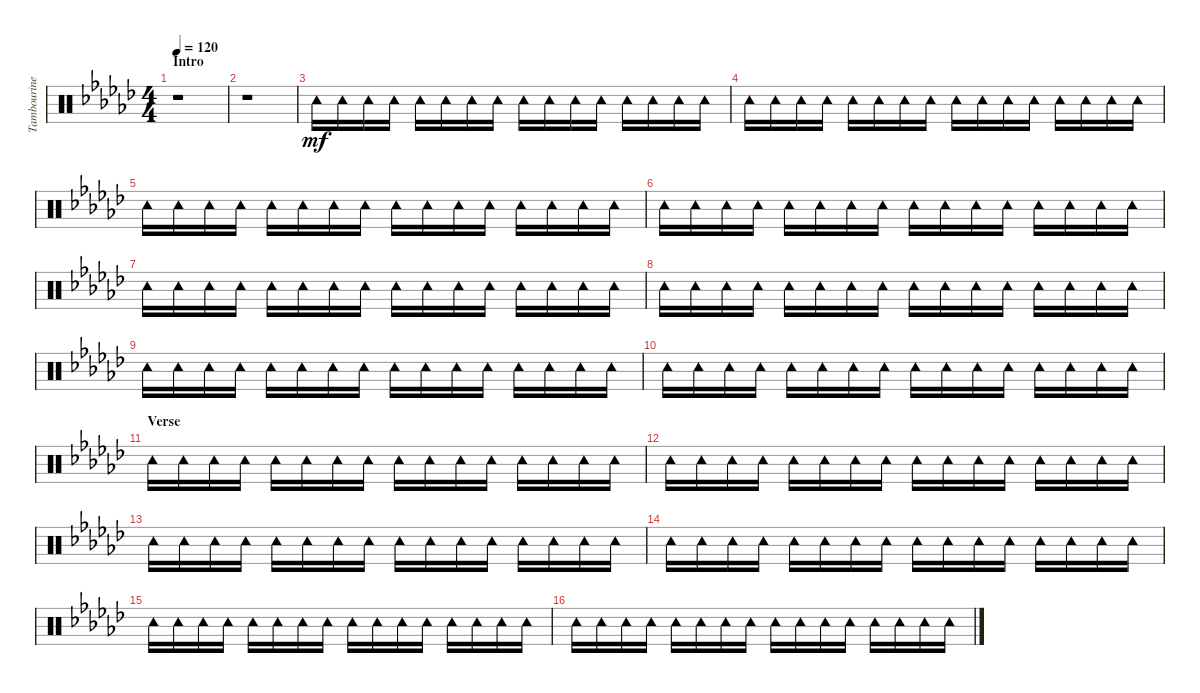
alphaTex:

\track ("Tambourine" "Tambourine") {instrument percussion}
\staff {score}
\articulation defaults
\ts (4 4)
\section ("" "Intro")
\tempo 120
\clef neutral
\ks ebminor
r.1{dy mf} |
r.1 |
"Tambourine (hit)".16 "Tambourine (hit)".16 "Tambourine (hit)".16 "Tambourine (hit)".16 "Tambourine (hit)".16 "Tambourine (hit)".16 "Tambourine (hit)".16 "Tambourine (hit)".16 "Tambourine (hit)".16 "Tambourine (hit)".16 "Tambourine (hit)".16 "Tambourine (hit)".16 "Tambourine (hit)".16 "Tambourine (hit)".16 "Tambourine (hit)".16 "Tambourine (hit)".16 |
"Tambourine (hit)".16 "Tambourine (hit)".16 "Tambourine (hit)".16 "Tambourine (hit)".16 "Tambourine (hit)".16 "Tambourine (hit)".16 "Tambourine (hit)".16 "Tambourine (hit)".16 "Tambourine (hit)".16 "Tambourine (hit)".16 "Tambourine (hit)".16 "Tambourine (hit)".16 "Tambourine (hit)".16 "Tambourine (hit)".16 "Tambourine (hit)".16 "Tambourine (hit)".16 |
"Tambourine (hit)".16 "Tambourine (hit)".16 "Tambourine (hit)".16 "Tambourine (hit)".16 "Tambourine (hit)".16 "Tambourine (hit)".16 "Tambourine (hit)".16 "Tambourine (hit)".16 "Tambourine (hit)".16 "Tambourine (hit)".16 "Tambourine (hit)".16 "Tambourine (hit)".16 "Tambourine (hit)".16 "Tambourine (hit)".16 "Tambourine (hit)".16 "Tambourine (hit)".16 |
"Tambourine (hit)".16 "Tambourine (hit)".16 "Tambourine (hit)".16 "Tambourine (hit)".16 "Tambourine (hit)".16 "Tambourine (hit)".16 "Tambourine (hit)".16 "Tambourine (hit)".16 "Tambourine (hit)".16 "Tambourine (hit)".16 "Tambourine (hit)".16 "Tambourine (hit)".16 "Tambourine (hit)".16 "Tambourine (hit)".16 "Tambourine (hit)".16 "Tambourine (hit)".16 |
"Tambourine (hit)".16 "Tambourine (hit)".16 "Tambourine (hit)".16 "Tambourine (hit)".16 "Tambourine (hit)".16 "Tambourine (hit)".16 "Tambourine (hit)".16 "Tambourine (hit)".16 "Tambourine (hit)".16 "Tambourine (hit)".16 "Tambourine (hit)".16 "Tambourine (hit)".16 "Tambourine (hit)".16 "Tambourine (hit)".16 "Tambourine (hit)".16 "Tambourine (hit)".16 |
"Tambourine (hit)".16 "Tambourine (hit)".16 "Tambourine (hit)".16 "Tambourine (hit)".16 "Tambourine (hit)".16 "Tambourine (hit)".16 "Tambourine (hit)".16 "Tambourine (hit)".16 "Tambourine (hit)".16 "Tambourine (hit)".16 "Tambourine (hit)".16 "Tambourine (hit)".16 "Tambourine (hit)".16 "Tambourine (hit)".16 "Tambourine (hit)".16 "Tambourine (hit)".16 |
"Tambourine (hit)".16 "Tambourine (hit)".16 "Tambourine (hit)".16 "Tambourine (hit)".16 "Tambourine (hit)".16 "Tambourine (hit)".16 "Tambourine (hit)".16 "Tambourine (hit)".16 "Tambourine (hit)".16 "Tambourine (hit)".16 "Tambourine (hit)".16 "Tambourine (hit)".16 "Tambourine (hit)".16 "Tambourine (hit)".16 "Tambourine (hit)".16 "Tambourine (hit)".16 |
"Tambourine (hit)".16 "Tambourine (hit)".16 "Tambourine (hit)".16 "Tambourine (hit)".16 "Tambourine (hit)".16 "Tambourine (hit)".16 "Tambourine (hit)".16 "Tambourine (hit)".16 "Tambourine (hit)".16 "Tambourine (hit)".16 "Tambourine (hit)".16 "Tambourine (hit)".16 "Tambourine (hit)".16 "Tambourine (hit)".16 "Tambourine (hit)".16 "Tambourine (hit)".16 |
\section ("" "Verse")
"Tambourine (hit)".16 "Tambourine (hit)".16 "Tambourine (hit)".16 "Tambourine (hit)".16 "Tambourine (hit)".16 "Tambourine (hit)".16 "Tambourine (hit)".16 "Tambourine (hit)".16 "Tambourine (hit)".16 "Tambourine (hit)".16 "Tambourine (hit)".16 "Tambourine (hit)".16 "Tambourine (hit)".16 "Tambourine (hit)".16 "Tambourine (hit)".16 "Tambourine (hit)".16 |
"Tambourine (hit)".16 "Tambourine (hit)".16 "Tambourine (hit)".16 "Tambourine (hit)".16 "Tambourine (hit)".16 "Tambourine (hit)".16 "Tambourine (hit)".16 "Tambourine (hit)".16 "Tambourine (hit)".16 "Tambourine (hit)".16 "Tambourine (hit)".16 "Tambourine (hit)".16 "Tambourine (hit)".16 "Tambourine (hit)".16 "Tambourine (hit)".16 "Tambourine (hit)".16 |
"Tambourine (hit)".16 "Tambourine (hit)".16 "Tambourine (hit)".16 "Tambourine (hit)".16 "Tambourine (hit)".16 "Tambourine (hit)".16 "Tambourine (hit)".16 "Tambourine (hit)".16 "Tambourine (hit)".16 "Tambourine (hit)".16 "Tambourine (hit)".16 "Tambourine (hit)".16 "Tambourine (hit)".16 "Tambourine (hit)".16 "Tambourine (hit)".16 "Tambourine (hit)".16 |
"Tambourine (hit)".16 "Tambourine (hit)".16 "Tambourine (hit)".16 "Tambourine (hit)".16 "Tambourine (hit)".16 "Tambourine (hit)".16 "Tambourine (hit)".16 "Tambourine (hit)".16 "Tambourine (hit)".16 "Tambourine (hit)".16 "Tambourine (hit)".16 "Tambourine (hit)".16 "Tambourine (hit)".16 "Tambourine (hit)".16 "Tambourine (hit)".16 "Tambourine (hit)".16 |
"Tambourine (hit)".16 "Tambourine (hit)".16 "Tambourine (hit)".16 "Tambourine (hit)".16 "Tambourine (hit)".16 "Tambourine (hit)".16 "Tambourine (hit)".16 "Tambourine (hit)".16 "Tambourine (hit)".16 "Tambourine (hit)".16 "Tambourine (hit)".16 "Tambourine (hit)".16 "Tambourine (hit)".16 "Tambourine (hit)".16 "Tambourine (hit)".16 "Tambourine (hit)".16 |
"Tambourine (hit)".16 "Tambourine (hit)".16 "Tambourine (hit)".16 "Tambourine (hit)".16 "Tambourine (hit)".16 "Tambourine (hit)".16 "Tambourine (hit)".16 "Tambourine (hit)".16 "Tambourine (hit)".16 "Tambourine (hit)".16 "Tambourine (hit)".16 "Tambourine (hit)".16 "Tambourine (hit)".16 "Tambourine (hit)".16 "Tambourine (hit)".16 "Tambourine (hit)".16
